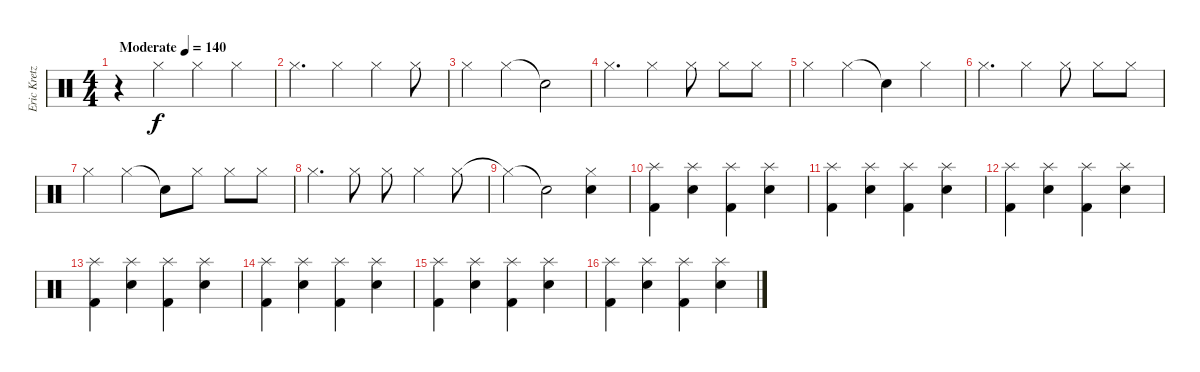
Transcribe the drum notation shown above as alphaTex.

\track ("Eric Kretz" "Eric Kretz") {instrument percussion}
\staff {score}
\articulation defaults
\ts (4 4)
\tempo (140 "Moderate")
\clef neutral
\ks c
r.4{dy f} "Hi-Hat (closed)".4 "Hi-Hat (closed)".4 "Hi-Hat (closed)".4 |
"Hi-Hat (closed)".4{d} "Hi-Hat (closed)".4 "Hi-Hat (closed)".4 "Hi-Hat (closed)".8 |
"Hi-Hat (closed)".4 "Hi-Hat (closed)".4 "Snare (hit)"{t}.2 |
"Hi-Hat (closed)".4{d} "Hi-Hat (closed)".4 "Hi-Hat (closed)".8 "Hi-Hat (closed)".8 "Hi-Hat (closed)".8 |
"Hi-Hat (closed)".4 "Hi-Hat (closed)".4 "Snare (hit)"{t}.4 "Hi-Hat (closed)".4 |
"Hi-Hat (closed)".4{d} "Hi-Hat (closed)".4 "Hi-Hat (closed)".8 "Hi-Hat (closed)".8 "Hi-Hat (closed)".8 |
"Hi-Hat (closed)".4 "Hi-Hat (closed)".4 "Snare (hit)"{t}.8 "Hi-Hat (closed)".8 "Hi-Hat (closed)".8 "Hi-Hat (closed)".8 |
"Hi-Hat (closed)".4{d} "Hi-Hat (closed)".8 "Hi-Hat (closed)".8 "Hi-Hat (closed)".4 "Hi-Hat (closed)".8 |
"Hi-Hat (closed)"{t}.4 "Snare (hit)"{t}.2 ("Hi-Hat (closed)" "Snare (hit) 2").4 |
("Kick (hit) 2" "Splash (hit)").4 ("Snare (hit) 2" "Splash (hit)").4 ("Kick (hit) 2" "Splash (hit)").4 ("Snare (hit) 2" "Splash (hit)").4 |
("Splash (hit)" "Kick (hit) 2").4 ("Splash (hit)" "Snare (hit) 2").4 ("Splash (hit)" "Kick (hit) 2").4 ("Splash (hit)" "Snare (hit) 2").4 |
("Kick (hit) 2" "Splash (hit)").4 ("Snare (hit) 2" "Splash (hit)").4 ("Kick (hit) 2" "Splash (hit)").4 ("Snare (hit) 2" "Splash (hit)").4 |
("Splash (hit)" "Kick (hit) 2").4 ("Splash (hit)" "Snare (hit) 2").4 ("Splash (hit)" "Kick (hit) 2").4 ("Splash (hit)" "Snare (hit) 2").4 |
("Kick (hit) 2" "Splash (hit)").4 ("Snare (hit) 2" "Splash (hit)").4 ("Kick (hit) 2" "Splash (hit)").4 ("Snare (hit) 2" "Splash (hit)").4 |
("Splash (hit)" "Kick (hit) 2").4 ("Splash (hit)" "Snare (hit) 2").4 ("Splash (hit)" "Kick (hit) 2").4 ("Splash (hit)" "Snare (hit) 2").4 |
("Kick (hit) 2" "Splash (hit)").4 ("Snare (hit) 2" "Splash (hit)").4 ("Kick (hit) 2" "Splash (hit)").4 ("Snare (hit) 2" "Splash (hit)").4
